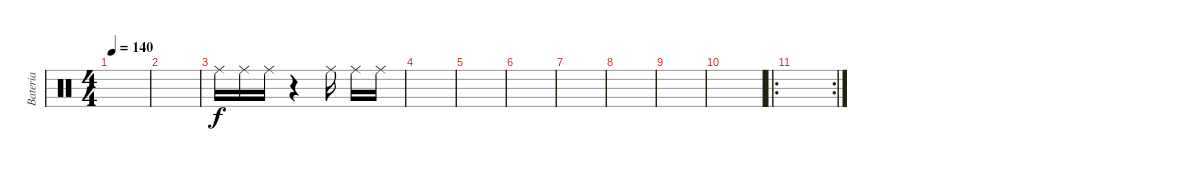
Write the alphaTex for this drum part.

\track ("Bateria" "Bateria") {instrument percussion}
\staff {score}
\articulation defaults
\ts (4 4)
\tempo 140
\clef neutral
\ks c
|
|
"Ride (middle)".16 "Ride (middle)".16 "Ride (middle)".16 r.4 "Ride (middle)".16 "Ride (middle)".16 "Ride (middle)".16 |
|
|
|
|
|
|
|
\ro
\rc 2
